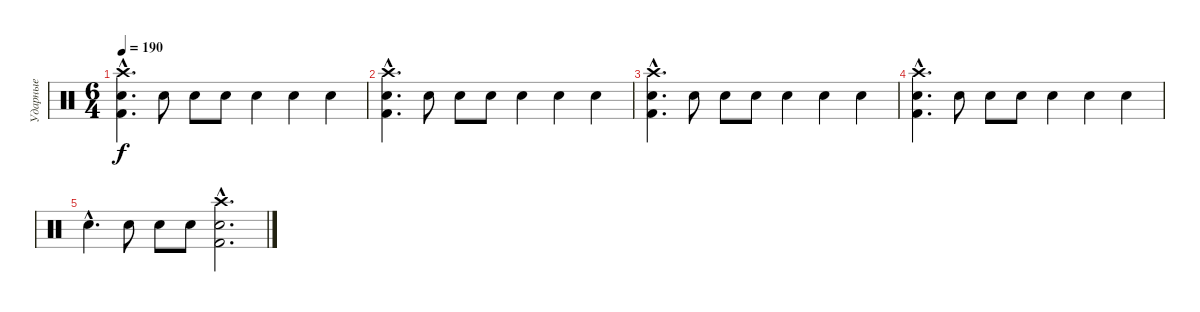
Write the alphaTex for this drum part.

\track ("Ударные" "Ударные") {instrument percussion}
\staff {score}
\articulation defaults
\ts (6 4)
\tempo 190
\clef neutral
\ks c
("Crash high (hit)"{hac} "Electric Snare (hit)"{hac} "Kick (hit) 2"{hac}).4{d dy f} "Electric Snare (hit)".8 "Electric Snare (hit)".8 "Electric Snare (hit)".8 "Electric Snare (hit)".4 "Electric Snare (hit)".4 "Electric Snare (hit)".4 |
("Crash high (hit)"{hac} "Electric Snare (hit)"{hac} "Kick (hit) 2"{hac}).4{d} "Electric Snare (hit)".8 "Electric Snare (hit)".8 "Electric Snare (hit)".8 "Electric Snare (hit)".4 "Electric Snare (hit)".4 "Electric Snare (hit)".4 |
("Crash high (hit)"{hac} "Electric Snare (hit)"{hac} "Kick (hit) 2"{hac}).4{d} "Electric Snare (hit)".8 "Electric Snare (hit)".8 "Electric Snare (hit)".8 "Electric Snare (hit)".4 "Electric Snare (hit)".4 "Electric Snare (hit)".4 |
("Crash high (hit)"{hac} "Electric Snare (hit)"{hac} "Kick (hit) 2"{hac}).4{d} "Electric Snare (hit)".8 "Electric Snare (hit)".8 "Electric Snare (hit)".8 "Electric Snare (hit)".4 "Electric Snare (hit)".4 "Electric Snare (hit)".4 |
"Electric Snare (hit)"{hac}.4{d} "Electric Snare (hit)".8 "Electric Snare (hit)".8 "Electric Snare (hit)".8 ("Crash high (hit)"{hac} "Electric Snare (hit)"{hac} "Kick (hit) 2"{hac}).2{d}
